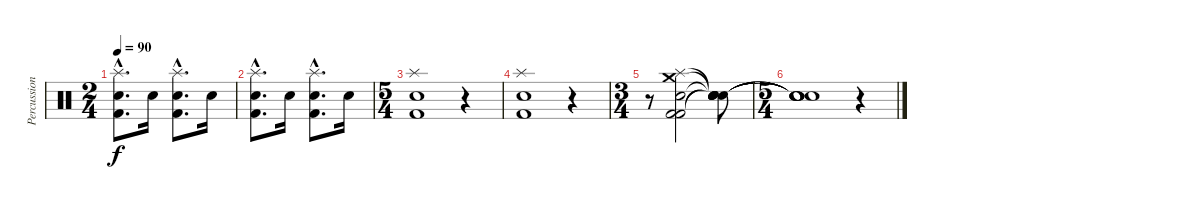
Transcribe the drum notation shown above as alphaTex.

\track ("Percussion" "Percussion") {instrument percussion}
\staff {score}
\articulation defaults
\ts (2 4)
\tempo 90
\clef neutral
\ks c
("Splash (hit)"{hac} "Snare (hit) 2"{hac} "Kick (hit) 2"{hac}).8{d dy f} "Electric Snare (hit)".16 ("Splash (hit)"{hac} "Snare (hit) 2"{hac} "Kick (hit) 2"{hac}).8{d} "Electric Snare (hit)".16 |
("Splash (hit)"{hac} "Snare (hit) 2"{hac} "Kick (hit) 2"{hac}).8{d} "Electric Snare (hit)".16 ("Splash (hit)"{hac} "Snare (hit) 2"{hac} "Kick (hit) 2"{hac}).8{d} "Electric Snare (hit)".16 |
\ts (5 4)
("Splash (hit)" "Snare (hit) 2" "Kick (hit) 2").1 r.4 |
("Splash (hit)" "Snare (hit) 2" "Kick (hit) 2").1 r.4 |
\ts (3 4)
r.8 ("Splash (hit)" "Crash medium (hit)" "Kick (hit) 2" "Electric Snare (hit)" "Kick (hit) 2").2 ("Snare (hit)"{t} "Snare (hit)"{t} "Snare (hit)"{t} "Snare (hit)"{t} "Snare (hit)"{t}).8 |
\ts (5 4)
("Snare (hit)"{t} "Snare (hit)"{t} "Snare (hit)"{t} "Snare (hit)"{t} "Snare (hit)"{t}).1 r.4
